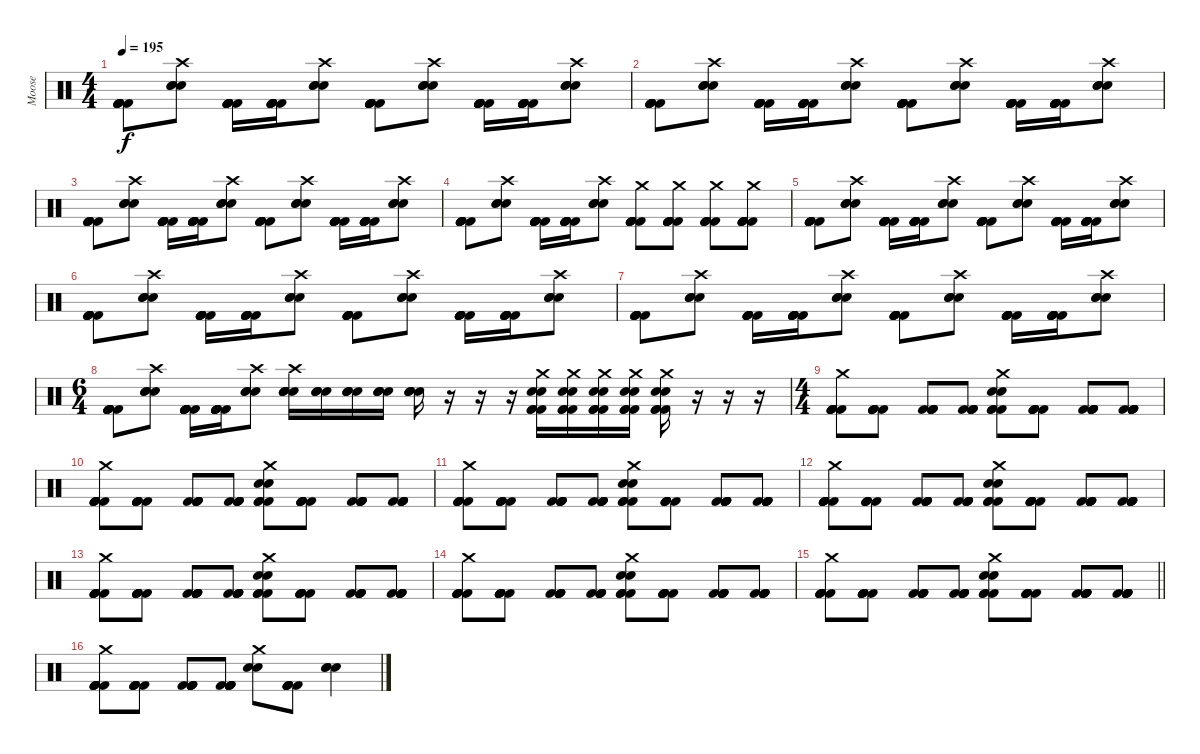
\track ("Moose" "Moose") {instrument percussion}
\staff {score}
\articulation defaults
\ts (4 4)
\tempo 195
\clef neutral
\ks c
("Kick (hit) 2" "Kick (hit) 2" "Kick (hit) 2" "Kick (hit) 2" "Kick (hit) 2" "Kick (hit) 2").8{dy f} ("Electric Snare (hit)" "Electric Snare (hit)" "Electric Snare (hit)" "Crash high (hit)").8 ("Kick (hit) 2" "Kick (hit) 2" "Kick (hit) 2" "Kick (hit) 2" "Kick (hit) 2" "Kick (hit) 2").16 ("Kick (hit) 2" "Kick (hit) 2" "Kick (hit) 2" "Kick (hit) 2" "Kick (hit) 2" "Kick (hit) 2").16 ("Electric Snare (hit)" "Electric Snare (hit)" "Electric Snare (hit)" "Crash high (hit)").8 ("Kick (hit) 2" "Kick (hit) 2" "Kick (hit) 2" "Kick (hit) 2" "Kick (hit) 2" "Kick (hit) 2").8 ("Electric Snare (hit)" "Electric Snare (hit)" "Electric Snare (hit)" "Crash high (hit)").8 ("Kick (hit) 2" "Kick (hit) 2" "Kick (hit) 2" "Kick (hit) 2" "Kick (hit) 2" "Kick (hit) 2").16 ("Kick (hit) 2" "Kick (hit) 2" "Kick (hit) 2" "Kick (hit) 2" "Kick (hit) 2" "Kick (hit) 2").16 ("Electric Snare (hit)" "Electric Snare (hit)" "Electric Snare (hit)" "Crash high (hit)").8 |
("Kick (hit) 2" "Kick (hit) 2" "Kick (hit) 2" "Kick (hit) 2" "Kick (hit) 2" "Kick (hit) 2").8 ("Electric Snare (hit)" "Electric Snare (hit)" "Electric Snare (hit)" "Crash high (hit)").8 ("Kick (hit) 2" "Kick (hit) 2" "Kick (hit) 2" "Kick (hit) 2" "Kick (hit) 2" "Kick (hit) 2").16 ("Kick (hit) 2" "Kick (hit) 2" "Kick (hit) 2" "Kick (hit) 2" "Kick (hit) 2" "Kick (hit) 2").16 ("Electric Snare (hit)" "Electric Snare (hit)" "Electric Snare (hit)" "Crash high (hit)").8 ("Kick (hit) 2" "Kick (hit) 2" "Kick (hit) 2" "Kick (hit) 2" "Kick (hit) 2" "Kick (hit) 2").8 ("Electric Snare (hit)" "Electric Snare (hit)" "Electric Snare (hit)" "Crash high (hit)").8 ("Kick (hit) 2" "Kick (hit) 2" "Kick (hit) 2" "Kick (hit) 2" "Kick (hit) 2" "Kick (hit) 2").16 ("Kick (hit) 2" "Kick (hit) 2" "Kick (hit) 2" "Kick (hit) 2" "Kick (hit) 2" "Kick (hit) 2").16 ("Electric Snare (hit)" "Electric Snare (hit)" "Electric Snare (hit)" "Crash high (hit)").8 |
("Kick (hit) 2" "Kick (hit) 2" "Kick (hit) 2" "Kick (hit) 2" "Kick (hit) 2" "Kick (hit) 2").8 ("Electric Snare (hit)" "Electric Snare (hit)" "Electric Snare (hit)" "Crash high (hit)").8 ("Kick (hit) 2" "Kick (hit) 2" "Kick (hit) 2" "Kick (hit) 2" "Kick (hit) 2" "Kick (hit) 2").16 ("Kick (hit) 2" "Kick (hit) 2" "Kick (hit) 2" "Kick (hit) 2" "Kick (hit) 2" "Kick (hit) 2").16 ("Electric Snare (hit)" "Electric Snare (hit)" "Electric Snare (hit)" "Crash high (hit)").8 ("Kick (hit) 2" "Kick (hit) 2" "Kick (hit) 2" "Kick (hit) 2" "Kick (hit) 2" "Kick (hit) 2").8 ("Electric Snare (hit)" "Electric Snare (hit)" "Electric Snare (hit)" "Crash high (hit)").8 ("Kick (hit) 2" "Kick (hit) 2" "Kick (hit) 2" "Kick (hit) 2" "Kick (hit) 2" "Kick (hit) 2").16 ("Kick (hit) 2" "Kick (hit) 2" "Kick (hit) 2" "Kick (hit) 2" "Kick (hit) 2" "Kick (hit) 2").16 ("Electric Snare (hit)" "Electric Snare (hit)" "Electric Snare (hit)" "Crash high (hit)").8 |
("Kick (hit) 2" "Kick (hit) 2" "Kick (hit) 2" "Kick (hit) 2" "Kick (hit) 2" "Kick (hit) 2").8 ("Electric Snare (hit)" "Electric Snare (hit)" "Electric Snare (hit)" "Crash high (hit)").8 ("Kick (hit) 2" "Kick (hit) 2" "Kick (hit) 2" "Kick (hit) 2" "Kick (hit) 2" "Kick (hit) 2").16 ("Kick (hit) 2" "Kick (hit) 2" "Kick (hit) 2" "Kick (hit) 2" "Kick (hit) 2" "Kick (hit) 2").16 ("Electric Snare (hit)" "Electric Snare (hit)" "Electric Snare (hit)" "Crash high (hit)").8 ("Kick (hit) 2" "Kick (hit) 2" "Kick (hit) 2" "Kick (hit) 2" "Kick (hit) 2" "Crash medium (hit)").8 ("Kick (hit) 2" "Kick (hit) 2" "Kick (hit) 2" "Kick (hit) 2" "Kick (hit) 2" "Crash medium (hit)").8 ("Kick (hit) 2" "Kick (hit) 2" "Kick (hit) 2" "Kick (hit) 2" "Kick (hit) 2" "Crash medium (hit)").8 ("Kick (hit) 2" "Kick (hit) 2" "Kick (hit) 2" "Kick (hit) 2" "Kick (hit) 2" "Crash medium (hit)").8 |
("Kick (hit) 2" "Kick (hit) 2" "Kick (hit) 2" "Kick (hit) 2" "Kick (hit) 2" "Kick (hit) 2").8 ("Electric Snare (hit)" "Electric Snare (hit)" "Electric Snare (hit)" "Crash high (hit)").8 ("Kick (hit) 2" "Kick (hit) 2" "Kick (hit) 2" "Kick (hit) 2" "Kick (hit) 2" "Kick (hit) 2").16 ("Kick (hit) 2" "Kick (hit) 2" "Kick (hit) 2" "Kick (hit) 2" "Kick (hit) 2" "Kick (hit) 2").16 ("Electric Snare (hit)" "Electric Snare (hit)" "Electric Snare (hit)" "Crash high (hit)").8 ("Kick (hit) 2" "Kick (hit) 2" "Kick (hit) 2" "Kick (hit) 2" "Kick (hit) 2" "Kick (hit) 2").8 ("Electric Snare (hit)" "Electric Snare (hit)" "Electric Snare (hit)" "Crash high (hit)").8 ("Kick (hit) 2" "Kick (hit) 2" "Kick (hit) 2" "Kick (hit) 2" "Kick (hit) 2" "Kick (hit) 2").16 ("Kick (hit) 2" "Kick (hit) 2" "Kick (hit) 2" "Kick (hit) 2" "Kick (hit) 2" "Kick (hit) 2").16 ("Electric Snare (hit)" "Electric Snare (hit)" "Electric Snare (hit)" "Crash high (hit)").8 |
("Kick (hit) 2" "Kick (hit) 2" "Kick (hit) 2" "Kick (hit) 2" "Kick (hit) 2" "Kick (hit) 2").8 ("Electric Snare (hit)" "Electric Snare (hit)" "Electric Snare (hit)" "Crash high (hit)").8 ("Kick (hit) 2" "Kick (hit) 2" "Kick (hit) 2" "Kick (hit) 2" "Kick (hit) 2" "Kick (hit) 2").16 ("Kick (hit) 2" "Kick (hit) 2" "Kick (hit) 2" "Kick (hit) 2" "Kick (hit) 2" "Kick (hit) 2").16 ("Electric Snare (hit)" "Electric Snare (hit)" "Electric Snare (hit)" "Crash high (hit)").8 ("Kick (hit) 2" "Kick (hit) 2" "Kick (hit) 2" "Kick (hit) 2" "Kick (hit) 2" "Kick (hit) 2").8 ("Electric Snare (hit)" "Electric Snare (hit)" "Electric Snare (hit)" "Crash high (hit)").8 ("Kick (hit) 2" "Kick (hit) 2" "Kick (hit) 2" "Kick (hit) 2" "Kick (hit) 2" "Kick (hit) 2").16 ("Kick (hit) 2" "Kick (hit) 2" "Kick (hit) 2" "Kick (hit) 2" "Kick (hit) 2" "Kick (hit) 2").16 ("Electric Snare (hit)" "Electric Snare (hit)" "Electric Snare (hit)" "Crash high (hit)").8 |
("Kick (hit) 2" "Kick (hit) 2" "Kick (hit) 2" "Kick (hit) 2" "Kick (hit) 2" "Kick (hit) 2").8 ("Electric Snare (hit)" "Electric Snare (hit)" "Electric Snare (hit)" "Crash high (hit)").8 ("Kick (hit) 2" "Kick (hit) 2" "Kick (hit) 2" "Kick (hit) 2" "Kick (hit) 2" "Kick (hit) 2").16 ("Kick (hit) 2" "Kick (hit) 2" "Kick (hit) 2" "Kick (hit) 2" "Kick (hit) 2" "Kick (hit) 2").16 ("Electric Snare (hit)" "Electric Snare (hit)" "Electric Snare (hit)" "Crash high (hit)").8 ("Kick (hit) 2" "Kick (hit) 2" "Kick (hit) 2" "Kick (hit) 2" "Kick (hit) 2" "Kick (hit) 2").8 ("Electric Snare (hit)" "Electric Snare (hit)" "Electric Snare (hit)" "Crash high (hit)").8 ("Kick (hit) 2" "Kick (hit) 2" "Kick (hit) 2" "Kick (hit) 2" "Kick (hit) 2" "Kick (hit) 2").16 ("Kick (hit) 2" "Kick (hit) 2" "Kick (hit) 2" "Kick (hit) 2" "Kick (hit) 2" "Kick (hit) 2").16 ("Electric Snare (hit)" "Electric Snare (hit)" "Electric Snare (hit)" "Crash high (hit)").8 |
\ts (6 4)
("Kick (hit) 2" "Kick (hit) 2" "Kick (hit) 2" "Kick (hit) 2" "Kick (hit) 2" "Kick (hit) 2").8 ("Electric Snare (hit)" "Electric Snare (hit)" "Electric Snare (hit)" "Crash high (hit)").8 ("Kick (hit) 2" "Kick (hit) 2" "Kick (hit) 2" "Kick (hit) 2" "Kick (hit) 2" "Kick (hit) 2").16 ("Kick (hit) 2" "Kick (hit) 2" "Kick (hit) 2" "Kick (hit) 2" "Kick (hit) 2" "Kick (hit) 2").16 ("Electric Snare (hit)" "Electric Snare (hit)" "Electric Snare (hit)" "Crash high (hit)").8 ("Electric Snare (hit)" "Electric Snare (hit)" "Electric Snare (hit)" "Electric Snare (hit)" "Crash high (hit)").16 ("Electric Snare (hit)" "Electric Snare (hit)" "Electric Snare (hit)" "Electric Snare (hit)").16 ("Electric Snare (hit)" "Electric Snare (hit)" "Electric Snare (hit)" "Electric Snare (hit)").16 ("Electric Snare (hit)" "Electric Snare (hit)" "Electric Snare (hit)" "Electric Snare (hit)").16 ("Electric Snare (hit)" "Electric Snare (hit)" "Electric Snare (hit)" "Electric Snare (hit)").16 r.16 r.16 r.16 ("Kick (hit) 2" "Kick (hit) 2" "Kick (hit) 2" "Electric Snare (hit)" "Electric Snare (hit)" "Crash medium (hit)").16 ("Kick (hit) 2" "Kick (hit) 2" "Kick (hit) 2" "Electric Snare (hit)" "Electric Snare (hit)" "Crash medium (hit)").16 ("Kick (hit) 2" "Kick (hit) 2" "Kick (hit) 2" "Electric Snare (hit)" "Electric Snare (hit)" "Crash medium (hit)").16 ("Kick (hit) 2" "Kick (hit) 2" "Kick (hit) 2" "Electric Snare (hit)" "Electric Snare (hit)" "Crash medium (hit)").16 ("Kick (hit) 2" "Kick (hit) 2" "Kick (hit) 2" "Electric Snare (hit)" "Electric Snare (hit)" "Crash medium (hit)").16 r.16 r.16 r.16 |
\ts (4 4)
("Kick (hit) 2" "Kick (hit) 2" "Kick (hit) 2" "Kick (hit) 2" "Kick (hit) 2" "Crash medium (hit)").8 ("Kick (hit) 2" "Kick (hit) 2" "Kick (hit) 2" "Kick (hit) 2" "Kick (hit) 2").8 ("Kick (hit) 2" "Kick (hit) 2" "Kick (hit) 2" "Kick (hit) 2" "Kick (hit) 2").8 ("Kick (hit) 2" "Kick (hit) 2" "Kick (hit) 2" "Kick (hit) 2" "Kick (hit) 2").8 ("Kick (hit) 2" "Kick (hit) 2" "Kick (hit) 2" "Electric Snare (hit)" "Electric Snare (hit)" "Crash medium (hit)").8 ("Kick (hit) 2" "Kick (hit) 2" "Kick (hit) 2" "Kick (hit) 2" "Kick (hit) 2").8 ("Kick (hit) 2" "Kick (hit) 2" "Kick (hit) 2" "Kick (hit) 2" "Kick (hit) 2").8 ("Kick (hit) 2" "Kick (hit) 2" "Kick (hit) 2" "Kick (hit) 2" "Kick (hit) 2").8 |
("Kick (hit) 2" "Kick (hit) 2" "Kick (hit) 2" "Kick (hit) 2" "Kick (hit) 2" "Crash medium (hit)").8 ("Kick (hit) 2" "Kick (hit) 2" "Kick (hit) 2" "Kick (hit) 2" "Kick (hit) 2").8 ("Kick (hit) 2" "Kick (hit) 2" "Kick (hit) 2" "Kick (hit) 2" "Kick (hit) 2").8 ("Kick (hit) 2" "Kick (hit) 2" "Kick (hit) 2" "Kick (hit) 2" "Kick (hit) 2").8 ("Kick (hit) 2" "Kick (hit) 2" "Kick (hit) 2" "Electric Snare (hit)" "Electric Snare (hit)" "Crash medium (hit)").8 ("Kick (hit) 2" "Kick (hit) 2" "Kick (hit) 2" "Kick (hit) 2" "Kick (hit) 2").8 ("Kick (hit) 2" "Kick (hit) 2" "Kick (hit) 2" "Kick (hit) 2" "Kick (hit) 2").8 ("Kick (hit) 2" "Kick (hit) 2" "Kick (hit) 2" "Kick (hit) 2" "Kick (hit) 2").8 |
("Kick (hit) 2" "Kick (hit) 2" "Kick (hit) 2" "Kick (hit) 2" "Kick (hit) 2" "Crash medium (hit)").8 ("Kick (hit) 2" "Kick (hit) 2" "Kick (hit) 2" "Kick (hit) 2" "Kick (hit) 2").8 ("Kick (hit) 2" "Kick (hit) 2" "Kick (hit) 2" "Kick (hit) 2" "Kick (hit) 2").8 ("Kick (hit) 2" "Kick (hit) 2" "Kick (hit) 2" "Kick (hit) 2" "Kick (hit) 2").8 ("Kick (hit) 2" "Kick (hit) 2" "Kick (hit) 2" "Electric Snare (hit)" "Electric Snare (hit)" "Crash medium (hit)").8 ("Kick (hit) 2" "Kick (hit) 2" "Kick (hit) 2" "Kick (hit) 2" "Kick (hit) 2").8 ("Kick (hit) 2" "Kick (hit) 2" "Kick (hit) 2" "Kick (hit) 2" "Kick (hit) 2").8 ("Kick (hit) 2" "Kick (hit) 2" "Kick (hit) 2" "Kick (hit) 2" "Kick (hit) 2").8 |
("Kick (hit) 2" "Kick (hit) 2" "Kick (hit) 2" "Kick (hit) 2" "Kick (hit) 2" "Crash medium (hit)").8 ("Kick (hit) 2" "Kick (hit) 2" "Kick (hit) 2" "Kick (hit) 2" "Kick (hit) 2").8 ("Kick (hit) 2" "Kick (hit) 2" "Kick (hit) 2" "Kick (hit) 2" "Kick (hit) 2").8 ("Kick (hit) 2" "Kick (hit) 2" "Kick (hit) 2" "Kick (hit) 2" "Kick (hit) 2").8 ("Kick (hit) 2" "Kick (hit) 2" "Kick (hit) 2" "Electric Snare (hit)" "Electric Snare (hit)" "Crash medium (hit)").8 ("Kick (hit) 2" "Kick (hit) 2" "Kick (hit) 2" "Kick (hit) 2" "Kick (hit) 2").8 ("Kick (hit) 2" "Kick (hit) 2" "Kick (hit) 2" "Kick (hit) 2" "Kick (hit) 2").8 ("Kick (hit) 2" "Kick (hit) 2" "Kick (hit) 2" "Kick (hit) 2" "Kick (hit) 2").8 |
("Kick (hit) 2" "Kick (hit) 2" "Kick (hit) 2" "Kick (hit) 2" "Kick (hit) 2" "Crash medium (hit)").8 ("Kick (hit) 2" "Kick (hit) 2" "Kick (hit) 2" "Kick (hit) 2" "Kick (hit) 2").8 ("Kick (hit) 2" "Kick (hit) 2" "Kick (hit) 2" "Kick (hit) 2" "Kick (hit) 2").8 ("Kick (hit) 2" "Kick (hit) 2" "Kick (hit) 2" "Kick (hit) 2" "Kick (hit) 2").8 ("Kick (hit) 2" "Kick (hit) 2" "Kick (hit) 2" "Electric Snare (hit)" "Electric Snare (hit)" "Crash medium (hit)").8 ("Kick (hit) 2" "Kick (hit) 2" "Kick (hit) 2" "Kick (hit) 2" "Kick (hit) 2").8 ("Kick (hit) 2" "Kick (hit) 2" "Kick (hit) 2" "Kick (hit) 2" "Kick (hit) 2").8 ("Kick (hit) 2" "Kick (hit) 2" "Kick (hit) 2" "Kick (hit) 2" "Kick (hit) 2").8 |
("Kick (hit) 2" "Kick (hit) 2" "Kick (hit) 2" "Kick (hit) 2" "Kick (hit) 2" "Crash medium (hit)").8 ("Kick (hit) 2" "Kick (hit) 2" "Kick (hit) 2" "Kick (hit) 2" "Kick (hit) 2").8 ("Kick (hit) 2" "Kick (hit) 2" "Kick (hit) 2" "Kick (hit) 2" "Kick (hit) 2").8 ("Kick (hit) 2" "Kick (hit) 2" "Kick (hit) 2" "Kick (hit) 2" "Kick (hit) 2").8 ("Kick (hit) 2" "Kick (hit) 2" "Kick (hit) 2" "Electric Snare (hit)" "Electric Snare (hit)" "Crash medium (hit)").8 ("Kick (hit) 2" "Kick (hit) 2" "Kick (hit) 2" "Kick (hit) 2" "Kick (hit) 2").8 ("Kick (hit) 2" "Kick (hit) 2" "Kick (hit) 2" "Kick (hit) 2" "Kick (hit) 2").8 ("Kick (hit) 2" "Kick (hit) 2" "Kick (hit) 2" "Kick (hit) 2" "Kick (hit) 2").8 |
\barLineRight lightlight
("Kick (hit) 2" "Kick (hit) 2" "Kick (hit) 2" "Kick (hit) 2" "Kick (hit) 2" "Crash medium (hit)").8 ("Kick (hit) 2" "Kick (hit) 2" "Kick (hit) 2" "Kick (hit) 2" "Kick (hit) 2").8 ("Kick (hit) 2" "Kick (hit) 2" "Kick (hit) 2" "Kick (hit) 2" "Kick (hit) 2").8 ("Kick (hit) 2" "Kick (hit) 2" "Kick (hit) 2" "Kick (hit) 2" "Kick (hit) 2").8 ("Kick (hit) 2" "Kick (hit) 2" "Kick (hit) 2" "Electric Snare (hit)" "Electric Snare (hit)" "Crash medium (hit)").8 ("Kick (hit) 2" "Kick (hit) 2" "Kick (hit) 2" "Kick (hit) 2" "Kick (hit) 2").8 ("Kick (hit) 2" "Kick (hit) 2" "Kick (hit) 2" "Kick (hit) 2" "Kick (hit) 2").8 ("Kick (hit) 2" "Kick (hit) 2" "Kick (hit) 2" "Kick (hit) 2" "Kick (hit) 2").8 |
("Kick (hit) 2" "Kick (hit) 2" "Kick (hit) 2" "Kick (hit) 2" "Kick (hit) 2" "Crash medium (hit)").8 ("Kick (hit) 2" "Kick (hit) 2" "Kick (hit) 2" "Kick (hit) 2" "Kick (hit) 2").8 ("Kick (hit) 2" "Kick (hit) 2" "Kick (hit) 2" "Kick (hit) 2" "Kick (hit) 2").8 ("Kick (hit) 2" "Kick (hit) 2" "Kick (hit) 2" "Kick (hit) 2" "Kick (hit) 2").8 ("Electric Snare (hit)" "Electric Snare (hit)" "Crash medium (hit)").8 ("Kick (hit) 2" "Kick (hit) 2" "Kick (hit) 2" "Kick (hit) 2" "Kick (hit) 2").8 ("Electric Snare (hit)" "Electric Snare (hit)" "Electric Snare (hit)").4
